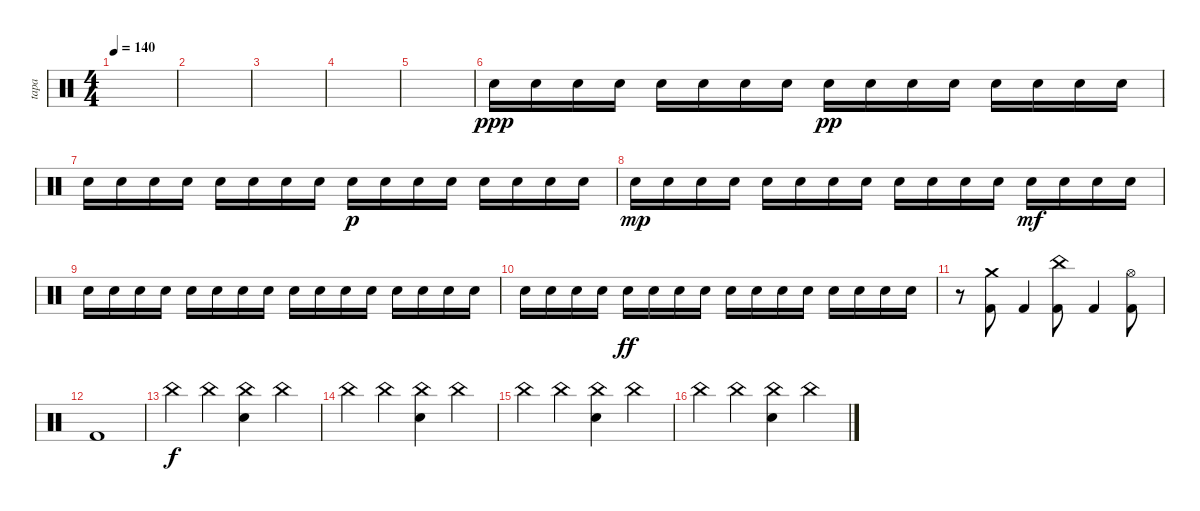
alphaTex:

\track ("tapa" "tapa") {instrument percussion}
\staff {score}
\articulation defaults
\ts (4 4)
\tempo 140
\clef neutral
\ks c
|
|
|
|
|
"Snare (hit) 2".16{dy ppp} "Snare (hit) 2".16 "Snare (hit) 2".16 "Snare (hit) 2".16 "Snare (hit) 2".16 "Snare (hit) 2".16 "Snare (hit) 2".16 "Snare (hit) 2".16 "Snare (hit) 2".16{dy pp} "Snare (hit) 2".16 "Snare (hit) 2".16 "Snare (hit) 2".16 "Snare (hit) 2".16 "Snare (hit) 2".16 "Snare (hit) 2".16 "Snare (hit) 2".16 |
"Snare (hit) 2".16 "Snare (hit) 2".16 "Snare (hit) 2".16 "Snare (hit) 2".16 "Snare (hit) 2".16 "Snare (hit) 2".16 "Snare (hit) 2".16 "Snare (hit) 2".16 "Snare (hit) 2".16{dy p} "Snare (hit) 2".16 "Snare (hit) 2".16 "Snare (hit) 2".16 "Snare (hit) 2".16 "Snare (hit) 2".16 "Snare (hit) 2".16 "Snare (hit) 2".16 |
"Snare (hit) 2".16{dy mp} "Snare (hit) 2".16 "Snare (hit) 2".16 "Snare (hit) 2".16 "Snare (hit) 2".16 "Snare (hit) 2".16 "Snare (hit) 2".16 "Snare (hit) 2".16 "Snare (hit) 2".16 "Snare (hit) 2".16 "Snare (hit) 2".16 "Snare (hit) 2".16 "Snare (hit) 2".16{dy mf} "Snare (hit) 2".16 "Snare (hit) 2".16 "Snare (hit) 2".16 |
"Snare (hit) 2".16 "Snare (hit) 2".16 "Snare (hit) 2".16 "Snare (hit) 2".16 "Snare (hit) 2".16 "Snare (hit) 2".16 "Snare (hit) 2".16 "Snare (hit) 2".16 "Snare (hit) 2".16 "Snare (hit) 2".16 "Snare (hit) 2".16 "Snare (hit) 2".16 "Snare (hit) 2".16 "Snare (hit) 2".16 "Snare (hit) 2".16 "Snare (hit) 2".16 |
"Snare (hit) 2".16 "Snare (hit) 2".16 "Snare (hit) 2".16 "Snare (hit) 2".16 "Snare (hit) 2".16{dy ff} "Snare (hit) 2".16 "Snare (hit) 2".16 "Snare (hit) 2".16 "Snare (hit) 2".16 "Snare (hit) 2".16 "Snare (hit) 2".16 "Snare (hit) 2".16 "Snare (hit) 2".16 "Snare (hit) 2".16 "Snare (hit) 2".16 "Snare (hit) 2".16 |
r.8 ("Kick (hit) 2" "Crash medium (hit)").8 "Kick (hit) 2".4 ("Kick (hit) 2" "China (hit)").8 "Kick (hit) 2".4 ("Kick (hit) 2" "Hi-Hat (open)").8 |
"Kick (hit) 2".1 |
"China (hit)".4{dy f} "China (hit)".4 ("China (hit)" "Snare (hit) 2").4 "China (hit)".4 |
"China (hit)".4 "China (hit)".4 ("China (hit)" "Snare (hit) 2").4 "China (hit)".4 |
"China (hit)".4 "China (hit)".4 ("China (hit)" "Snare (hit) 2").4 "China (hit)".4 |
"China (hit)".4 "China (hit)".4 ("China (hit)" "Snare (hit) 2").4 "China (hit)".4
